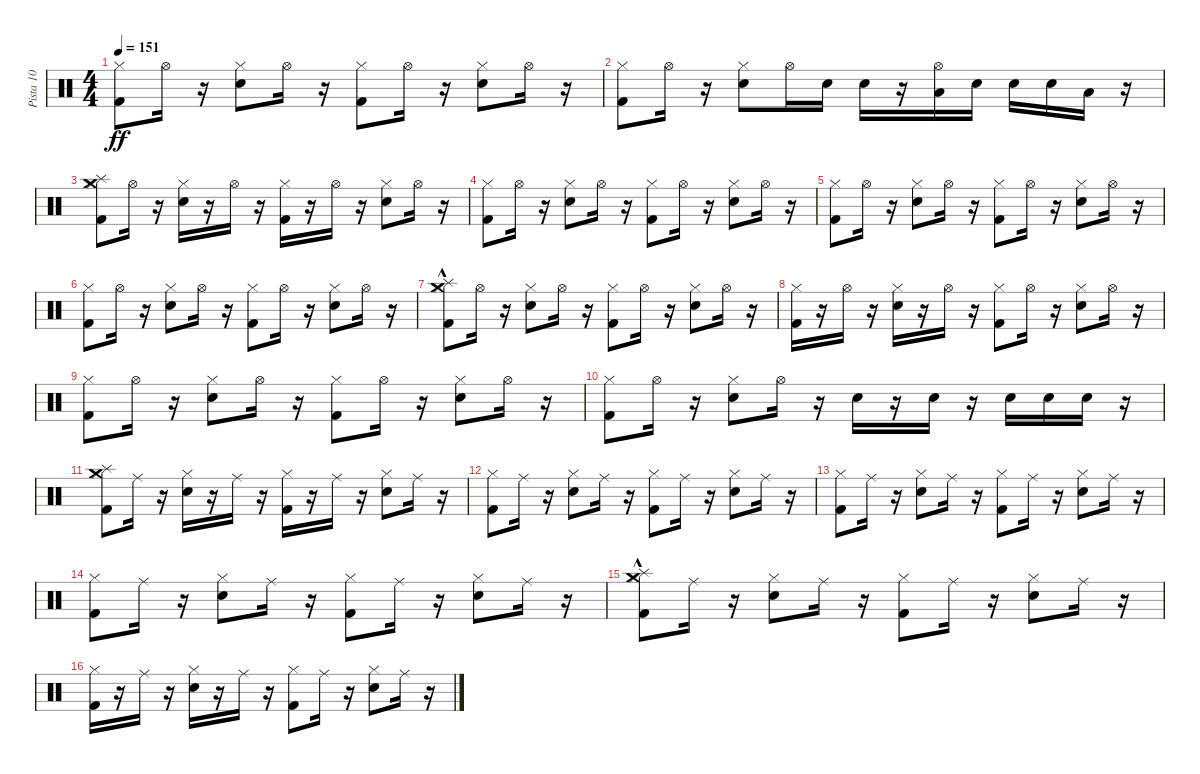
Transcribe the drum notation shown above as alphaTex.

\track ("Pista 10" "Pista 10") {instrument percussion}
\staff {score}
\articulation defaults
\ts (4 4)
\tempo 151
\clef neutral
\ks c
("Hi-Hat (closed)" "Kick (hit) 2").8{dy ff} "Hi-Hat (open)".16 r.16 ("Hi-Hat (closed)" "Snare (hit) 2").8 "Hi-Hat (open)".16 r.16 ("Hi-Hat (closed)" "Kick (hit) 2").8 "Hi-Hat (open)".16 r.16 ("Snare (hit) 2" "Hi-Hat (closed)").8 "Hi-Hat (open)".16 r.16 |
("Kick (hit) 2" "Hi-Hat (closed)").8 "Hi-Hat (open)".16 r.16 ("Snare (hit) 2" "Hi-Hat (closed)").8 "Hi-Hat (open)".16 "Snare (hit) 2".16 "Snare (hit) 2".16 r.16 ("Hi-Hat (open)" "Low Floor Tom (hit)").16 "Snare (hit) 2".16 "Snare (hit) 2".16 "Snare (hit) 2".16 "Low Floor Tom (hit)".16 r.16 |
("Kick (hit) 2" "Hi-Hat (closed)" "Splash (hit)" "Crash medium (hit)").8 "Hi-Hat (open)".16 r.16 ("Snare (hit) 2" "Hi-Hat (closed)").16 r.16 "Hi-Hat (open)".16 r.16 ("Hi-Hat (closed)" "Kick (hit) 2").16 r.16 "Hi-Hat (open)".16 r.16 ("Hi-Hat (closed)" "Snare (hit) 2").8 "Hi-Hat (open)".16 r.16 |
("Hi-Hat (closed)" "Kick (hit) 2").8 "Hi-Hat (open)".16 r.16 ("Snare (hit) 2" "Hi-Hat (closed)").8 "Hi-Hat (open)".16 r.16 ("Kick (hit) 2" "Hi-Hat (closed)").8 "Hi-Hat (open)".16 r.16 ("Snare (hit) 2" "Hi-Hat (closed)").8 "Hi-Hat (open)".16 r.16 |
("Kick (hit) 2" "Hi-Hat (closed)").8 "Hi-Hat (open)".16 r.16 ("Snare (hit) 2" "Hi-Hat (closed)").8 "Hi-Hat (open)".16 r.16 ("Kick (hit) 2" "Hi-Hat (closed)").8 "Hi-Hat (open)".16 r.16 ("Snare (hit) 2" "Hi-Hat (closed)").8 "Hi-Hat (open)".16 r.16 |
("Hi-Hat (closed)" "Kick (hit) 2").8 "Hi-Hat (open)".16 r.16 ("Hi-Hat (closed)" "Snare (hit) 2").8 "Hi-Hat (open)".16 r.16 ("Hi-Hat (closed)" "Kick (hit) 2").8 "Hi-Hat (open)".16 r.16 ("Snare (hit) 2" "Hi-Hat (closed)").8 "Hi-Hat (open)".16 r.16 |
("Kick (hit) 2" "Hi-Hat (closed)" "Crash medium (hit)"{hac} "Splash (hit)"{hac}).8 "Hi-Hat (open)".16 r.16 ("Snare (hit) 2" "Hi-Hat (closed)").8 "Hi-Hat (open)".16 r.16 ("Kick (hit) 2" "Hi-Hat (closed)").8 "Hi-Hat (open)".16 r.16 ("Snare (hit) 2" "Hi-Hat (closed)").8 "Hi-Hat (open)".16 r.16 |
("Kick (hit) 2" "Hi-Hat (closed)").16 r.16 "Hi-Hat (open)".16 r.16 ("Snare (hit) 2" "Hi-Hat (closed)").16 r.16 "Hi-Hat (open)".16 r.16 ("Hi-Hat (closed)" "Kick (hit) 2").8 "Hi-Hat (open)".16 r.16 ("Hi-Hat (closed)" "Snare (hit) 2").8 "Hi-Hat (open)".16 r.16 |
("Hi-Hat (closed)" "Kick (hit) 2").8 "Hi-Hat (open)".16 r.16 ("Snare (hit) 2" "Hi-Hat (closed)").8 "Hi-Hat (open)".16 r.16 ("Kick (hit) 2" "Hi-Hat (closed)").8 "Hi-Hat (open)".16 r.16 ("Snare (hit) 2" "Hi-Hat (closed)").8 "Hi-Hat (open)".16 r.16 |
("Kick (hit) 2" "Hi-Hat (closed)").8 "Hi-Hat (open)".16 r.16 ("Snare (hit) 2" "Hi-Hat (closed)").8 "Hi-Hat (open)".16 r.16 "Snare (hit) 2".16 r.16 "Snare (hit) 2".16 r.16 "Snare (hit) 2".16 "Snare (hit) 2".16 "Snare (hit) 2".16 r.16 |
("Kick (hit) 2" "Crash medium (hit)" "Splash (hit)" "Hi-Hat (closed)").8 "Ride (middle)".16 r.16 ("Snare (hit) 2" "Hi-Hat (closed)").16 r.16 "Ride (middle)".16 r.16 ("Kick (hit) 2" "Hi-Hat (closed)").16 r.16 "Ride (middle)".16 r.16 ("Hi-Hat (closed)" "Snare (hit) 2").8 "Ride (middle)".16 r.16 |
("Hi-Hat (closed)" "Kick (hit) 2").8 "Ride (middle)".16 r.16 ("Hi-Hat (closed)" "Snare (hit) 2").8 "Ride (middle)".16 r.16 ("Hi-Hat (closed)" "Kick (hit) 2").8 "Ride (middle)".16 r.16 ("Hi-Hat (closed)" "Snare (hit) 2").8 "Ride (middle)".16 r.16 |
("Hi-Hat (closed)" "Kick (hit) 2").8 "Ride (middle)".16 r.16 ("Hi-Hat (closed)" "Snare (hit) 2").8 "Ride (middle)".16 r.16 ("Hi-Hat (closed)" "Kick (hit) 2").8 "Ride (middle)".16 r.16 ("Snare (hit) 2" "Hi-Hat (closed)").8 "Ride (middle)".16 r.16 |
("Kick (hit) 2" "Hi-Hat (closed)").8 "Ride (middle)".16 r.16 ("Hi-Hat (closed)" "Snare (hit) 2").8 "Ride (middle)".16 r.16 ("Hi-Hat (closed)" "Kick (hit) 2").8 "Ride (middle)".16 r.16 ("Hi-Hat (closed)" "Snare (hit) 2").8 "Ride (middle)".16 r.16 |
("Hi-Hat (closed)" "Crash medium (hit)"{hac} "Splash (hit)"{hac} "Kick (hit) 2").8 "Ride (middle)".16 r.16 ("Hi-Hat (closed)" "Snare (hit) 2").8 "Ride (middle)".16 r.16 ("Hi-Hat (closed)" "Kick (hit) 2").8 "Ride (middle)".16 r.16 ("Hi-Hat (closed)" "Snare (hit) 2").8 "Ride (middle)".16 r.16 |
("Hi-Hat (closed)" "Kick (hit) 2").16 r.16 "Ride (middle)".16 r.16 ("Snare (hit) 2" "Hi-Hat (closed)").16 r.16 "Ride (middle)".16 r.16 ("Kick (hit) 2" "Hi-Hat (closed)").8 "Ride (middle)".16 r.16 ("Snare (hit) 2" "Hi-Hat (closed)").8 "Ride (middle)".16 r.16
